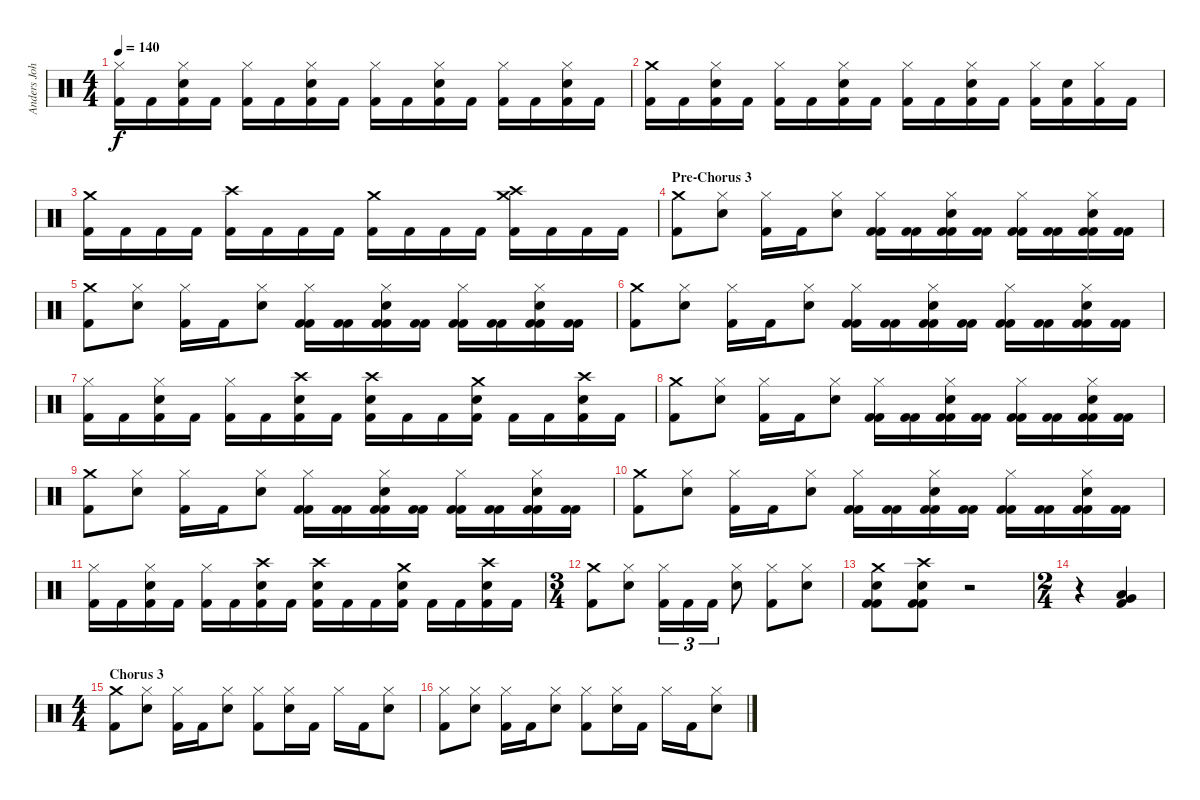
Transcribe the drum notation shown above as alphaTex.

\track ("Anders Johansson :: Drums" "Anders Joh") {instrument percussion}
\staff {score}
\articulation defaults
\ts (4 4)
\tempo 140
\clef neutral
\ks c
("Hi-Hat (closed)" "Kick (hit) 2").16{dy f} "Kick (hit) 2".16 ("Hi-Hat (closed)" "Snare (hit) 2" "Kick (hit) 2").16 "Kick (hit) 2".16 ("Hi-Hat (closed)" "Kick (hit) 2").16 "Kick (hit) 2".16 ("Hi-Hat (closed)" "Snare (hit) 2" "Kick (hit) 2").16 "Kick (hit) 2".16 ("Hi-Hat (closed)" "Kick (hit) 2").16 "Kick (hit) 2".16 ("Hi-Hat (closed)" "Snare (hit) 2" "Kick (hit) 2").16 "Kick (hit) 2".16 ("Hi-Hat (closed)" "Kick (hit) 2").16 "Kick (hit) 2".16 ("Hi-Hat (closed)" "Snare (hit) 2" "Kick (hit) 2").16 "Kick (hit) 2".16 |
("Crash medium (hit)" "Kick (hit) 2").16 "Kick (hit) 2".16 ("Hi-Hat (closed)" "Snare (hit) 2" "Kick (hit) 2").16 "Kick (hit) 2".16 ("Hi-Hat (closed)" "Kick (hit) 2").16 "Kick (hit) 2".16 ("Hi-Hat (closed)" "Snare (hit) 2" "Kick (hit) 2").16 "Kick (hit) 2".16 ("Hi-Hat (closed)" "Kick (hit) 2").16 "Kick (hit) 2".16 ("Hi-Hat (closed)" "Snare (hit) 2" "Kick (hit) 2").16 "Kick (hit) 2".16 ("Hi-Hat (closed)" "Kick (hit) 2").16 ("Snare (hit) 2" "Kick (hit) 2").16 ("Hi-Hat (closed)" "Kick (hit) 2").16 "Kick (hit) 2".16 |
("Crash medium (hit)" "Kick (hit) 2").16 "Kick (hit) 2".16 "Kick (hit) 2".16 "Kick (hit) 2".16 ("Crash high (hit)" "Kick (hit) 2").16 "Kick (hit) 2".16 "Kick (hit) 2".16 "Kick (hit) 2".16 ("Crash medium (hit)" "Kick (hit) 2").16 "Kick (hit) 2".16 "Kick (hit) 2".16 "Kick (hit) 2".16 ("Crash medium (hit)" "Crash high (hit)" "Kick (hit) 2").16 "Kick (hit) 2".16 "Kick (hit) 2".16 "Kick (hit) 2".16 |
\section ("" "Pre-Chorus 3")
("Crash medium (hit)" "Kick (hit) 2").8 ("Hi-Hat (closed)" "Snare (hit) 2").8 ("Hi-Hat (closed)" "Kick (hit) 2").16 "Kick (hit) 2".16 ("Hi-Hat (closed)" "Snare (hit) 2").8 ("Hi-Hat (closed)" "Kick (hit) 2" "Kick (hit) 2").16 ("Kick (hit) 2" "Kick (hit) 2").16 ("Hi-Hat (closed)" "Snare (hit) 2" "Kick (hit) 2" "Kick (hit) 2").16 ("Kick (hit) 2" "Kick (hit) 2").16 ("Hi-Hat (closed)" "Kick (hit) 2" "Kick (hit) 2").16 ("Kick (hit) 2" "Kick (hit) 2").16 ("Hi-Hat (closed)" "Snare (hit) 2" "Kick (hit) 2" "Kick (hit) 2").16 ("Kick (hit) 2" "Kick (hit) 2").16 |
("Crash medium (hit)" "Kick (hit) 2").8 ("Hi-Hat (closed)" "Snare (hit) 2").8 ("Hi-Hat (closed)" "Kick (hit) 2").16 "Kick (hit) 2".16 ("Hi-Hat (closed)" "Snare (hit) 2").8 ("Hi-Hat (closed)" "Kick (hit) 2" "Kick (hit) 2").16 ("Kick (hit) 2" "Kick (hit) 2").16 ("Hi-Hat (closed)" "Snare (hit) 2" "Kick (hit) 2" "Kick (hit) 2").16 ("Kick (hit) 2" "Kick (hit) 2").16 ("Hi-Hat (closed)" "Kick (hit) 2" "Kick (hit) 2").16 ("Kick (hit) 2" "Kick (hit) 2").16 ("Hi-Hat (closed)" "Snare (hit) 2" "Kick (hit) 2" "Kick (hit) 2").16 ("Kick (hit) 2" "Kick (hit) 2").16 |
("Crash medium (hit)" "Kick (hit) 2").8 ("Hi-Hat (closed)" "Snare (hit) 2").8 ("Hi-Hat (closed)" "Kick (hit) 2").16 "Kick (hit) 2".16 ("Hi-Hat (closed)" "Snare (hit) 2").8 ("Hi-Hat (closed)" "Kick (hit) 2" "Kick (hit) 2").16 ("Kick (hit) 2" "Kick (hit) 2").16 ("Hi-Hat (closed)" "Snare (hit) 2" "Kick (hit) 2" "Kick (hit) 2").16 ("Kick (hit) 2" "Kick (hit) 2").16 ("Hi-Hat (closed)" "Kick (hit) 2" "Kick (hit) 2").16 ("Kick (hit) 2" "Kick (hit) 2").16 ("Hi-Hat (closed)" "Snare (hit) 2" "Kick (hit) 2" "Kick (hit) 2").16 ("Kick (hit) 2" "Kick (hit) 2").16 |
("Hi-Hat (closed)" "Kick (hit) 2").16 "Kick (hit) 2".16 ("Hi-Hat (closed)" "Snare (hit) 2" "Kick (hit) 2").16 "Kick (hit) 2".16 ("Hi-Hat (closed)" "Kick (hit) 2").16 "Kick (hit) 2".16 ("Crash high (hit)" "Snare (hit) 2" "Kick (hit) 2").16 "Kick (hit) 2".16 ("Crash high (hit)" "Snare (hit) 2" "Kick (hit) 2").16 "Kick (hit) 2".16 "Kick (hit) 2".16 ("Crash medium (hit)" "Snare (hit) 2" "Kick (hit) 2").16 "Kick (hit) 2".16 "Kick (hit) 2".16 ("Crash high (hit)" "Snare (hit) 2" "Kick (hit) 2").16 "Kick (hit) 2".16 |
("Crash medium (hit)" "Kick (hit) 2").8 ("Hi-Hat (closed)" "Snare (hit) 2").8 ("Hi-Hat (closed)" "Kick (hit) 2").16 "Kick (hit) 2".16 ("Hi-Hat (closed)" "Snare (hit) 2").8 ("Hi-Hat (closed)" "Kick (hit) 2" "Kick (hit) 2").16 ("Kick (hit) 2" "Kick (hit) 2").16 ("Hi-Hat (closed)" "Snare (hit) 2" "Kick (hit) 2" "Kick (hit) 2").16 ("Kick (hit) 2" "Kick (hit) 2").16 ("Hi-Hat (closed)" "Kick (hit) 2" "Kick (hit) 2").16 ("Kick (hit) 2" "Kick (hit) 2").16 ("Hi-Hat (closed)" "Snare (hit) 2" "Kick (hit) 2" "Kick (hit) 2").16 ("Kick (hit) 2" "Kick (hit) 2").16 |
("Crash medium (hit)" "Kick (hit) 2").8 ("Hi-Hat (closed)" "Snare (hit) 2").8 ("Hi-Hat (closed)" "Kick (hit) 2").16 "Kick (hit) 2".16 ("Hi-Hat (closed)" "Snare (hit) 2").8 ("Hi-Hat (closed)" "Kick (hit) 2" "Kick (hit) 2").16 ("Kick (hit) 2" "Kick (hit) 2").16 ("Hi-Hat (closed)" "Snare (hit) 2" "Kick (hit) 2" "Kick (hit) 2").16 ("Kick (hit) 2" "Kick (hit) 2").16 ("Hi-Hat (closed)" "Kick (hit) 2" "Kick (hit) 2").16 ("Kick (hit) 2" "Kick (hit) 2").16 ("Hi-Hat (closed)" "Snare (hit) 2" "Kick (hit) 2" "Kick (hit) 2").16 ("Kick (hit) 2" "Kick (hit) 2").16 |
("Crash medium (hit)" "Kick (hit) 2").8 ("Hi-Hat (closed)" "Snare (hit) 2").8 ("Hi-Hat (closed)" "Kick (hit) 2").16 "Kick (hit) 2".16 ("Hi-Hat (closed)" "Snare (hit) 2").8 ("Hi-Hat (closed)" "Kick (hit) 2" "Kick (hit) 2").16 ("Kick (hit) 2" "Kick (hit) 2").16 ("Hi-Hat (closed)" "Snare (hit) 2" "Kick (hit) 2" "Kick (hit) 2").16 ("Kick (hit) 2" "Kick (hit) 2").16 ("Hi-Hat (closed)" "Kick (hit) 2" "Kick (hit) 2").16 ("Kick (hit) 2" "Kick (hit) 2").16 ("Hi-Hat (closed)" "Snare (hit) 2" "Kick (hit) 2" "Kick (hit) 2").16 ("Kick (hit) 2" "Kick (hit) 2").16 |
("Hi-Hat (closed)" "Kick (hit) 2").16 "Kick (hit) 2".16 ("Hi-Hat (closed)" "Snare (hit) 2" "Kick (hit) 2").16 "Kick (hit) 2".16 ("Hi-Hat (closed)" "Kick (hit) 2").16 "Kick (hit) 2".16 ("Crash high (hit)" "Snare (hit) 2" "Kick (hit) 2").16 "Kick (hit) 2".16 ("Crash high (hit)" "Snare (hit) 2" "Kick (hit) 2").16 "Kick (hit) 2".16 "Kick (hit) 2".16 ("Crash medium (hit)" "Snare (hit) 2" "Kick (hit) 2").16 "Kick (hit) 2".16 "Kick (hit) 2".16 ("Crash high (hit)" "Snare (hit) 2" "Kick (hit) 2").16 "Kick (hit) 2".16 |
\ts (3 4)
("Crash medium (hit)" "Kick (hit) 2").8 ("Hi-Hat (closed)" "Snare (hit) 2").8 ("Hi-Hat (closed)" "Kick (hit) 2").16{tu (3 2)} "Kick (hit) 2".16{tu (3 2)} "Kick (hit) 2".16{tu (3 2)} ("Hi-Hat (closed)" "Snare (hit) 2").8 ("Hi-Hat (closed)" "Kick (hit) 2").8 ("Hi-Hat (closed)" "Snare (hit) 2").8 |
("Crash medium (hit)" "Snare (hit) 2" "Kick (hit) 2" "Kick (hit) 2").8 ("Crash high (hit)" "Snare (hit) 2" "Kick (hit) 2" "Kick (hit) 2").8 r.2 |
\ts (2 4)
r.4 ("Low Tom (hit)" "Very Low Tom (hit)" "Kick (hit) 2").4 |
\ts (4 4)
\section ("" "Chorus 3")
("Crash medium (hit)" "Kick (hit) 2").8 ("Hi-Hat (closed)" "Snare (hit) 2").8 ("Hi-Hat (closed)" "Kick (hit) 2").16 "Kick (hit) 2".16 ("Hi-Hat (closed)" "Snare (hit) 2").8 ("Hi-Hat (closed)" "Kick (hit) 2").8 ("Hi-Hat (closed)" "Snare (hit) 2").16 "Kick (hit) 2".16 "Hi-Hat (closed)".16 "Kick (hit) 2".16 ("Hi-Hat (closed)" "Snare (hit) 2").8 |
("Hi-Hat (closed)" "Kick (hit) 2").8 ("Hi-Hat (closed)" "Snare (hit) 2").8 ("Hi-Hat (closed)" "Kick (hit) 2").16 "Kick (hit) 2".16 ("Hi-Hat (closed)" "Snare (hit) 2").8 ("Hi-Hat (closed)" "Kick (hit) 2").8 ("Hi-Hat (closed)" "Snare (hit) 2").16 "Kick (hit) 2".16 "Hi-Hat (closed)".16 "Kick (hit) 2".16 ("Hi-Hat (closed)" "Snare (hit) 2").8
